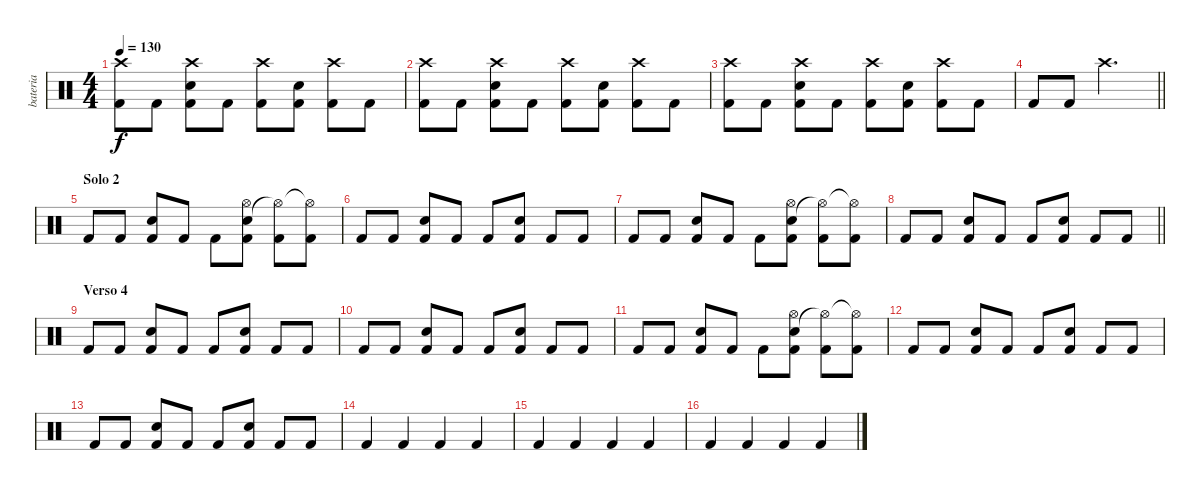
\track ("bateria" "bateria") {instrument percussion}
\staff {score}
\articulation defaults
\ts (4 4)
\tempo 130
\clef neutral
\ks c
("Crash high (hit)" "Kick (hit) 2").8{dy f} "Kick (hit) 2".8 ("Crash high (hit)" "Kick (hit) 2" "Electric Snare (hit)").8 "Kick (hit) 2".8 ("Crash high (hit)" "Kick (hit) 2").8 ("Kick (hit) 2" "Electric Snare (hit)").8 ("Crash high (hit)" "Kick (hit) 2").8 "Kick (hit) 2".8 |
("Crash high (hit)" "Kick (hit) 2").8 "Kick (hit) 2".8 ("Crash high (hit)" "Kick (hit) 2" "Electric Snare (hit)").8 "Kick (hit) 2".8 ("Crash high (hit)" "Kick (hit) 2").8 ("Kick (hit) 2" "Electric Snare (hit)").8 ("Crash high (hit)" "Kick (hit) 2").8 "Kick (hit) 2".8 |
("Crash high (hit)" "Kick (hit) 2").8 "Kick (hit) 2".8 ("Crash high (hit)" "Kick (hit) 2" "Electric Snare (hit)").8 "Kick (hit) 2".8 ("Crash high (hit)" "Kick (hit) 2").8 ("Kick (hit) 2" "Electric Snare (hit)").8 ("Crash high (hit)" "Kick (hit) 2").8 "Kick (hit) 2".8 |
\barLineRight lightlight "Kick (hit) 2".8 "Kick (hit) 2".8 "Crash high (hit)".2{d}
|
\section ("" "Solo 2")
"Kick (hit) 2".8 "Kick (hit) 2".8 ("Kick (hit) 2" "Electric Snare (hit)").8 "Kick (hit) 2".8 "Kick (hit) 2".8 ("Kick (hit) 2" "Electric Snare (hit)" "Hi-Hat (open)").8 ("Kick (hit) 2" "Hi-Hat (open)"{t}).8 ("Kick (hit) 2" "Hi-Hat (open)"{t}).8 |
"Kick (hit) 2".8 "Kick (hit) 2".8 ("Kick (hit) 2" "Electric Snare (hit)").8 "Kick (hit) 2".8 "Kick (hit) 2".8 ("Kick (hit) 2" "Electric Snare (hit)").8 "Kick (hit) 2".8 "Kick (hit) 2".8 |
"Kick (hit) 2".8 "Kick (hit) 2".8 ("Kick (hit) 2" "Electric Snare (hit)").8 "Kick (hit) 2".8 "Kick (hit) 2".8 ("Kick (hit) 2" "Electric Snare (hit)" "Hi-Hat (open)").8 ("Kick (hit) 2" "Hi-Hat (open)"{t}).8 ("Kick (hit) 2" "Hi-Hat (open)"{t}).8 |
\barLineRight lightlight "Kick (hit) 2".8 "Kick (hit) 2".8
("Kick (hit) 2" "Electric Snare (hit)").8 "Kick (hit) 2".8 "Kick (hit) 2".8 ("Kick (hit) 2" "Electric Snare (hit)").8 "Kick (hit) 2".8 "Kick (hit) 2".8 |
\section ("" "Verso 4")
"Kick (hit) 2".8 "Kick (hit) 2".8 ("Kick (hit) 2" "Electric Snare (hit)").8 "Kick (hit) 2".8 "Kick (hit) 2".8 ("Kick (hit) 2" "Electric Snare (hit)").8 "Kick (hit) 2".8 "Kick (hit) 2".8 |
"Kick (hit) 2".8 "Kick (hit) 2".8 ("Kick (hit) 2" "Electric Snare (hit)").8 "Kick (hit) 2".8 "Kick (hit) 2".8 ("Kick (hit) 2" "Electric Snare (hit)").8 "Kick (hit) 2".8 "Kick (hit) 2".8 |
"Kick (hit) 2".8 "Kick (hit) 2".8 ("Kick (hit) 2" "Electric Snare (hit)").8 "Kick (hit) 2".8 "Kick (hit) 2".8 ("Kick (hit) 2" "Electric Snare (hit)" "Hi-Hat (open)").8 ("Kick (hit) 2" "Hi-Hat (open)"{t}).8 ("Kick (hit) 2" "Hi-Hat (open)"{t}).8 |
"Kick (hit) 2".8 "Kick (hit) 2".8 ("Kick (hit) 2" "Electric Snare (hit)").8 "Kick (hit) 2".8 "Kick (hit) 2".8 ("Kick (hit) 2" "Electric Snare (hit)").8 "Kick (hit) 2".8 "Kick (hit) 2".8 |
"Kick (hit) 2".8 "Kick (hit) 2".8 ("Kick (hit) 2" "Electric Snare (hit)").8 "Kick (hit) 2".8 "Kick (hit) 2".8 ("Kick (hit) 2" "Electric Snare (hit)").8 "Kick (hit) 2".8 "Kick (hit) 2".8 |
"Kick (hit) 2".4 "Kick (hit) 2".4 "Kick (hit) 2".4 "Kick (hit) 2".4 |
"Kick (hit) 2".4 "Kick (hit) 2".4 "Kick (hit) 2".4 "Kick (hit) 2".4 |
"Kick (hit) 2".4 "Kick (hit) 2".4 "Kick (hit) 2".4 "Kick (hit) 2".4
